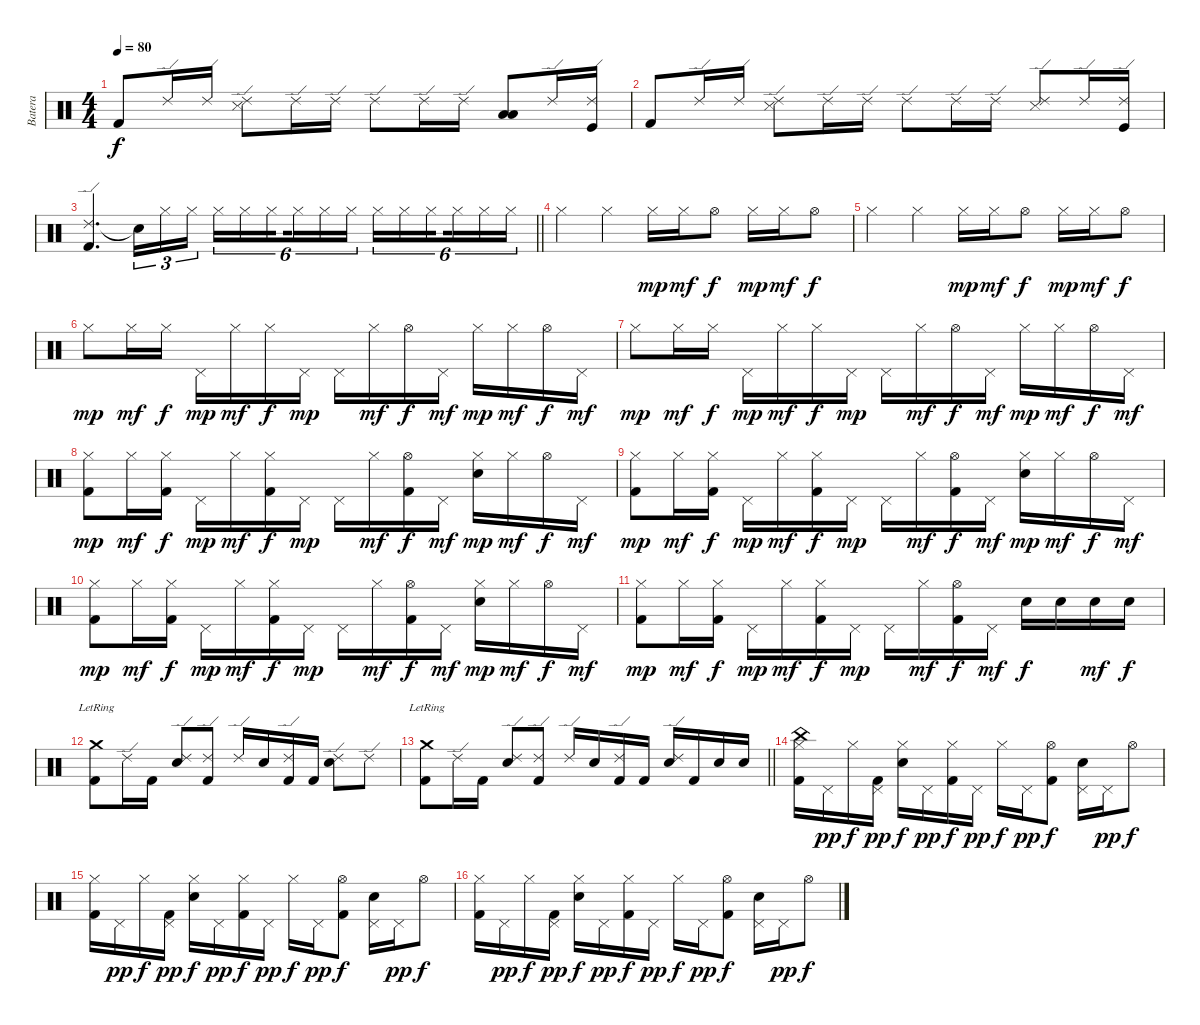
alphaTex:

\track ("Batera" "Batera") {instrument percussion}
\staff {score}
\articulation defaults
\ts (4 4)
\tempo 80
\clef neutral
\ks c "Kick (hit) 2".8{dy f} "Ride (edge) 2".16 "Ride (edge) 2".16
("Ride (edge) 2" "Snare (side stick) 3").8 "Ride (edge) 2".16 "Ride (edge) 2".16 "Ride (edge) 2".8 "Ride (edge) 2".16 "Ride (edge) 2".16 ("Low Tom (hit)" "Low Floor Tom (hit)").8 "Ride (edge) 2".16 ("Ride (edge) 2" "Kick (hit)").16 |
"Kick (hit) 2".8 "Ride (edge) 2".16 "Ride (edge) 2".16 ("Ride (edge) 2" "Snare (side stick) 3").8 "Ride (edge) 2".16 "Ride (edge) 2".16 "Ride (edge) 2".8 "Ride (edge) 2".16 "Ride (edge) 2".16 ("Ride (edge) 2" "Snare (side stick) 3").8 "Ride (edge) 2".16 ("Ride (edge) 2" "Kick (hit)").16 |
\barLineRight lightlight
("Ride (edge) 2" "Kick (hit) 2").4{d} "Snare (hit)"{t}.16{tu (3 2)} "Hi-Hat (closed)".16{tu (3 2)} "Hi-Hat (closed)".16{tu (3 2)} "Hi-Hat (closed)".16{tu (6 4)} "Hi-Hat (closed)".16{tu (6 4)} "Hi-Hat (closed)".16{tu (6 4) beam splitsecondary} "Hi-Hat (closed)".16{tu (6 4)} "Hi-Hat (closed)".16{tu (6 4)} "Hi-Hat (closed)".16{tu (6 4)} "Hi-Hat (closed)".16{tu (6 4)} "Hi-Hat (closed)".16{tu (6 4)} "Hi-Hat (closed)".16{tu (6 4) beam splitsecondary} "Hi-Hat (closed)".16{tu (6 4)} "Hi-Hat (closed)".16{tu (6 4)} "Hi-Hat (closed)".16{tu (6 4)} |
"Hi-Hat (closed)".4 "Hi-Hat (closed)".4 "Hi-Hat (closed)".16{dy mp} "Hi-Hat (closed)".16{dy mf} "Hi-Hat (open)".8{dy f} "Hi-Hat (closed)".16{dy mp} "Hi-Hat (closed)".16{dy mf} "Hi-Hat (open)".8{dy f} |
"Hi-Hat (closed)".4 "Hi-Hat (closed)".4 "Hi-Hat (closed)".16{dy mp} "Hi-Hat (closed)".16{dy mf} "Hi-Hat (open)".8{dy f} "Hi-Hat (closed)".16{dy mp} "Hi-Hat (closed)".16{dy mf} "Hi-Hat (open)".8{dy f} |
"Hi-Hat (closed)".8{dy mp} "Hi-Hat (closed)".16{dy mf} "Hi-Hat (closed)".16{dy f} "Pedal Hi-Hat (hit)".16{dy mp} "Hi-Hat (closed)".16{dy mf} "Hi-Hat (closed)".16{dy f} "Pedal Hi-Hat (hit)".16{dy mp} "Pedal Hi-Hat (hit)".16 "Hi-Hat (closed)".16{dy mf} "Hi-Hat (open)".16{dy f} "Pedal Hi-Hat (hit)".16{dy mf} "Hi-Hat (closed)".16{dy mp} "Hi-Hat (closed)".16{dy mf} "Hi-Hat (open)".16{dy f} "Pedal Hi-Hat (hit)".16{dy mf} |
"Hi-Hat (closed)".8{dy mp} "Hi-Hat (closed)".16{dy mf} "Hi-Hat (closed)".16{dy f} "Pedal Hi-Hat (hit)".16{dy mp} "Hi-Hat (closed)".16{dy mf} "Hi-Hat (closed)".16{dy f} "Pedal Hi-Hat (hit)".16{dy mp} "Pedal Hi-Hat (hit)".16 "Hi-Hat (closed)".16{dy mf} "Hi-Hat (open)".16{dy f} "Pedal Hi-Hat (hit)".16{dy mf} "Hi-Hat (closed)".16{dy mp} "Hi-Hat (closed)".16{dy mf} "Hi-Hat (open)".16{dy f} "Pedal Hi-Hat (hit)".16{dy mf} |
("Hi-Hat (closed)" "Kick (hit) 2").8{dy mp} "Hi-Hat (closed)".16{dy mf} ("Hi-Hat (closed)" "Kick (hit) 2").16{dy f} "Pedal Hi-Hat (hit)".16{dy mp} "Hi-Hat (closed)".16{dy mf} ("Hi-Hat (closed)" "Kick (hit) 2").16{dy f} "Pedal Hi-Hat (hit)".16{dy mp} "Pedal Hi-Hat (hit)".16 "Hi-Hat (closed)".16{dy mf} ("Hi-Hat (open)" "Kick (hit) 2").16{dy f} "Pedal Hi-Hat (hit)".16{dy mf} ("Electric Snare (hit)" "Hi-Hat (closed)").16{dy mp} "Hi-Hat (closed)".16{dy mf} "Hi-Hat (open)".16{dy f} "Pedal Hi-Hat (hit)".16{dy mf} |
("Hi-Hat (closed)" "Kick (hit) 2").8{dy mp} "Hi-Hat (closed)".16{dy mf} ("Hi-Hat (closed)" "Kick (hit) 2").16{dy f} "Pedal Hi-Hat (hit)".16{dy mp} "Hi-Hat (closed)".16{dy mf} ("Hi-Hat (closed)" "Kick (hit) 2").16{dy f} "Pedal Hi-Hat (hit)".16{dy mp} "Pedal Hi-Hat (hit)".16 "Hi-Hat (closed)".16{dy mf} ("Hi-Hat (open)" "Kick (hit) 2").16{dy f} "Pedal Hi-Hat (hit)".16{dy mf} ("Electric Snare (hit)" "Hi-Hat (closed)").16{dy mp} "Hi-Hat (closed)".16{dy mf} "Hi-Hat (open)".16{dy f} "Pedal Hi-Hat (hit)".16{dy mf} |
("Hi-Hat (closed)" "Kick (hit) 2").8{dy mp} "Hi-Hat (closed)".16{dy mf} ("Hi-Hat (closed)" "Kick (hit) 2").16{dy f} "Pedal Hi-Hat (hit)".16{dy mp} "Hi-Hat (closed)".16{dy mf} ("Hi-Hat (closed)" "Kick (hit) 2").16{dy f} "Pedal Hi-Hat (hit)".16{dy mp} "Pedal Hi-Hat (hit)".16 "Hi-Hat (closed)".16{dy mf} ("Hi-Hat (open)" "Kick (hit) 2").16{dy f} "Pedal Hi-Hat (hit)".16{dy mf} ("Electric Snare (hit)" "Hi-Hat (closed)").16{dy mp} "Hi-Hat (closed)".16{dy mf} "Hi-Hat (open)".16{dy f} "Pedal Hi-Hat (hit)".16{dy mf} |
("Hi-Hat (closed)" "Kick (hit) 2").8{dy mp} "Hi-Hat (closed)".16{dy mf} ("Hi-Hat (closed)" "Kick (hit) 2").16{dy f} "Pedal Hi-Hat (hit)".16{dy mp} "Hi-Hat (closed)".16{dy mf} ("Hi-Hat (closed)" "Kick (hit) 2").16{dy f} "Pedal Hi-Hat (hit)".16{dy mp} "Pedal Hi-Hat (hit)".16 "Hi-Hat (closed)".16{dy mf} ("Hi-Hat (open)" "Kick (hit) 2").16{dy f} "Pedal Hi-Hat (hit)".16{dy mf} "Electric Snare (hit)".16{dy f} "Electric Snare (hit)".16 "Electric Snare (hit)".16{dy mf} "Electric Snare (hit)".16{dy f} |
("Crash medium (hit)"{lr} "Kick (hit) 2").8 "Ride (edge) 2".16 "Kick (hit) 2".16 ("Ride (edge) 2" "Electric Snare (hit)").8 ("Ride (edge) 2" "Kick (hit) 2").8 "Ride (edge) 2".16 "Electric Snare (hit)".16 ("Ride (edge) 2" "Kick (hit) 2").16 "Kick (hit) 2".16 ("Ride (edge) 2" "Electric Snare (hit)").8 "Ride (edge) 2".8 |
\barLineRight lightlight
("Crash medium (hit)"{lr} "Kick (hit) 2").8 "Ride (edge) 2".16 "Kick (hit) 2".16 ("Ride (edge) 2" "Electric Snare (hit)").8 ("Ride (edge) 2" "Kick (hit) 2").8 "Ride (edge) 2".16 "Electric Snare (hit)".16 ("Ride (edge) 2" "Kick (hit) 2").16 "Kick (hit) 2".16 ("Ride (edge) 2" "Electric Snare (hit)").16 "Kick (hit) 2".16 "Electric Snare (hit)".16 "Electric Snare (hit)".16 |
("China (hit)" "Hi-Hat (closed)" "Kick (hit) 2").16 "Pedal Hi-Hat (hit)".16{dy pp} "Hi-Hat (closed)".16{dy f} ("Pedal Hi-Hat (hit)" "Kick (hit) 2").16{dy pp} ("Hi-Hat (closed)" "Electric Snare (hit)").16{dy f} "Pedal Hi-Hat (hit)".16{dy pp} ("Hi-Hat (closed)" "Kick (hit) 2").16{dy f} "Pedal Hi-Hat (hit)".16{dy pp} "Hi-Hat (closed)".16{dy f} "Pedal Hi-Hat (hit)".16{dy pp} ("Hi-Hat (open)" "Kick (hit) 2").8{dy f} ("Pedal Hi-Hat (hit)" "Electric Snare (hit)").16 "Pedal Hi-Hat (hit)".16{dy pp} "Hi-Hat (open)".8{dy f} |
("Hi-Hat (closed)" "Kick (hit) 2").16 "Pedal Hi-Hat (hit)".16{dy pp} "Hi-Hat (closed)".16{dy f} ("Pedal Hi-Hat (hit)" "Kick (hit) 2").16{dy pp} ("Hi-Hat (closed)" "Electric Snare (hit)").16{dy f} "Pedal Hi-Hat (hit)".16{dy pp} ("Hi-Hat (closed)" "Kick (hit) 2").16{dy f} "Pedal Hi-Hat (hit)".16{dy pp} "Hi-Hat (closed)".16{dy f} "Pedal Hi-Hat (hit)".16{dy pp} ("Hi-Hat (open)" "Kick (hit) 2").8{dy f} ("Pedal Hi-Hat (hit)" "Electric Snare (hit)").16 "Pedal Hi-Hat (hit)".16{dy pp} "Hi-Hat (open)".8{dy f} |
("Hi-Hat (closed)" "Kick (hit) 2").16 "Pedal Hi-Hat (hit)".16{dy pp} "Hi-Hat (closed)".16{dy f} ("Pedal Hi-Hat (hit)" "Kick (hit) 2").16{dy pp} ("Hi-Hat (closed)" "Electric Snare (hit)").16{dy f} "Pedal Hi-Hat (hit)".16{dy pp} ("Hi-Hat (closed)" "Kick (hit) 2").16{dy f} "Pedal Hi-Hat (hit)".16{dy pp} "Hi-Hat (closed)".16{dy f} "Pedal Hi-Hat (hit)".16{dy pp} ("Hi-Hat (open)" "Kick (hit) 2").8{dy f} ("Pedal Hi-Hat (hit)" "Electric Snare (hit)").16 "Pedal Hi-Hat (hit)".16{dy pp} "Hi-Hat (open)".8{dy f}
